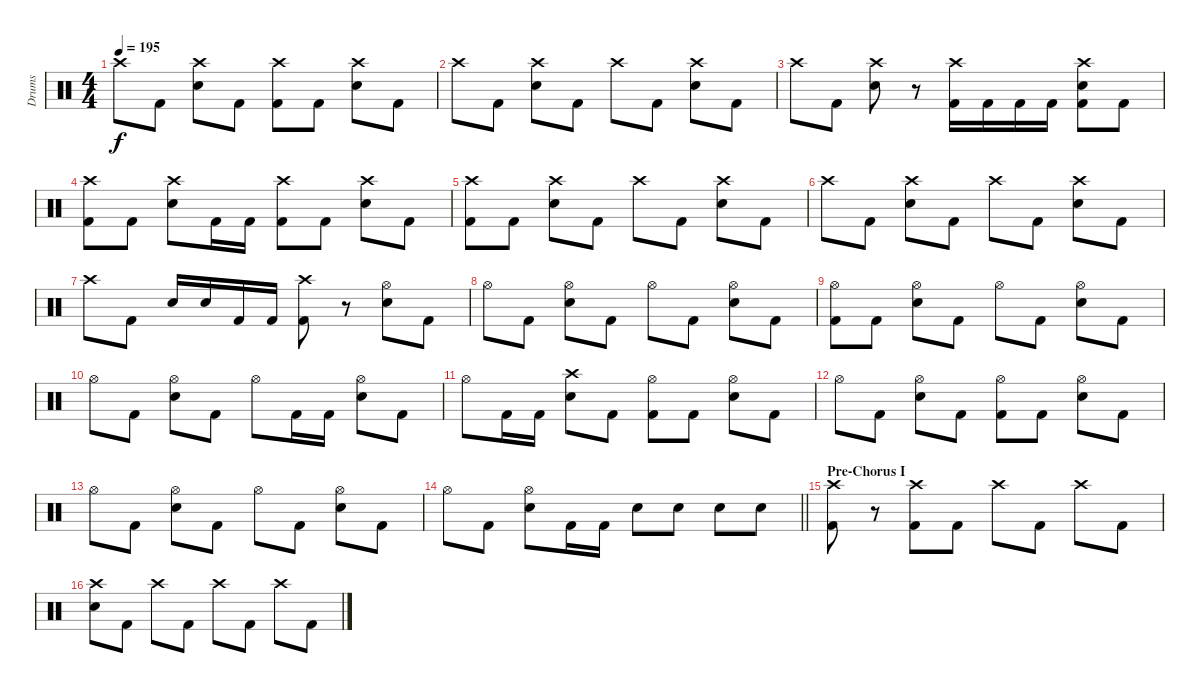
\track ("Drums" "Drums") {instrument percussion}
\staff {score}
\articulation defaults
\ts (4 4)
\tempo 195
\clef neutral
\ks c "Crash high (hit)".8{dy f} "Kick (hit) 2".8
("Crash high (hit)" "Snare (hit) 2").8 "Kick (hit) 2".8 ("Crash high (hit)" "Kick (hit) 2").8 "Kick (hit) 2".8 ("Crash high (hit)" "Snare (hit) 2").8 "Kick (hit) 2".8 |
"Crash high (hit)".8 "Kick (hit) 2".8 ("Crash high (hit)" "Snare (hit) 2").8 "Kick (hit) 2".8 "Crash high (hit)".8 "Kick (hit) 2".8 ("Crash high (hit)" "Snare (hit) 2").8 "Kick (hit) 2".8 |
"Crash high (hit)".8 "Kick (hit) 2".8 ("Crash high (hit)" "Snare (hit) 2").8 r.8 ("Crash high (hit)" "Kick (hit) 2").16 "Kick (hit) 2".16 "Kick (hit) 2".16 "Kick (hit) 2".16 ("Crash high (hit)" "Snare (hit) 2" "Kick (hit) 2").8 "Kick (hit) 2".8 |
("Crash high (hit)" "Kick (hit) 2").8 "Kick (hit) 2".8 ("Crash high (hit)" "Snare (hit) 2").8 "Kick (hit) 2".16 "Kick (hit) 2".16 ("Crash high (hit)" "Kick (hit) 2").8 "Kick (hit) 2".8 ("Crash high (hit)" "Snare (hit) 2").8 "Kick (hit) 2".8 |
("Crash high (hit)" "Kick (hit) 2").8 "Kick (hit) 2".8 ("Crash high (hit)" "Snare (hit) 2").8 "Kick (hit) 2".8 "Crash high (hit)".8 "Kick (hit) 2".8 ("Crash high (hit)" "Snare (hit) 2").8 "Kick (hit) 2".8 |
"Crash high (hit)".8 "Kick (hit) 2".8 ("Crash high (hit)" "Snare (hit) 2").8 "Kick (hit) 2".8 "Crash high (hit)".8 "Kick (hit) 2".8 ("Crash high (hit)" "Snare (hit) 2").8 "Kick (hit) 2".8 |
"Crash high (hit)".8 "Kick (hit) 2".8 "Snare (hit) 2".16 "Snare (hit) 2".16 "Kick (hit) 2".16 "Kick (hit) 2".16 ("Crash high (hit)" "Kick (hit) 2").8 r.8 ("Hi-Hat (open)" "Snare (hit) 2").8 "Kick (hit) 2".8 |
"Hi-Hat (open)".8 "Kick (hit) 2".8 ("Hi-Hat (open)" "Snare (hit) 2").8 "Kick (hit) 2".8 "Hi-Hat (open)".8 "Kick (hit) 2".8 ("Hi-Hat (open)" "Snare (hit) 2").8 "Kick (hit) 2".8 |
("Hi-Hat (open)" "Kick (hit) 2").8 "Kick (hit) 2".8 ("Hi-Hat (open)" "Snare (hit) 2").8 "Kick (hit) 2".8 "Hi-Hat (open)".8 "Kick (hit) 2".8 ("Hi-Hat (open)" "Snare (hit) 2").8 "Kick (hit) 2".8 |
"Hi-Hat (open)".8 "Kick (hit) 2".8 ("Hi-Hat (open)" "Snare (hit) 2").8 "Kick (hit) 2".8 "Hi-Hat (open)".8 "Kick (hit) 2".16 "Kick (hit) 2".16 ("Hi-Hat (open)" "Snare (hit) 2").8 "Kick (hit) 2".8 |
"Hi-Hat (open)".8 "Kick (hit) 2".16 "Kick (hit) 2".16 ("Crash high (hit)" "Snare (hit) 2").8 "Kick (hit) 2".8 ("Hi-Hat (open)" "Kick (hit) 2").8 "Kick (hit) 2".8 ("Hi-Hat (open)" "Snare (hit) 2").8 "Kick (hit) 2".8 |
"Hi-Hat (open)".8 "Kick (hit) 2".8 ("Hi-Hat (open)" "Snare (hit) 2").8 "Kick (hit) 2".8 ("Hi-Hat (open)" "Kick (hit) 2").8 "Kick (hit) 2".8 ("Hi-Hat (open)" "Snare (hit) 2").8 "Kick (hit) 2".8 |
"Hi-Hat (open)".8 "Kick (hit) 2".8 ("Hi-Hat (open)" "Snare (hit) 2").8 "Kick (hit) 2".8 "Hi-Hat (open)".8 "Kick (hit) 2".8 ("Hi-Hat (open)" "Snare (hit) 2").8 "Kick (hit) 2".8 |
\barLineRight lightlight "Hi-Hat (open)".8 "Kick (hit) 2".8
("Hi-Hat (open)" "Snare (hit) 2").8 "Kick (hit) 2".16 "Kick (hit) 2".16 "Snare (hit) 2".8 "Snare (hit) 2".8 "Snare (hit) 2".8 "Snare (hit) 2".8 |
\section ("" "Pre-Chorus I")
("Crash high (hit)" "Kick (hit) 2").8 r.8 ("Crash high (hit)" "Kick (hit) 2").8 "Kick (hit) 2".8 "Crash high (hit)".8 "Kick (hit) 2".8 "Crash high (hit)".8 "Kick (hit) 2".8 |
("Crash high (hit)" "Snare (hit) 2").8 "Kick (hit) 2".8 "Crash high (hit)".8 "Kick (hit) 2".8 "Crash high (hit)".8 "Kick (hit) 2".8 "Crash high (hit)".8 "Kick (hit) 2".8
